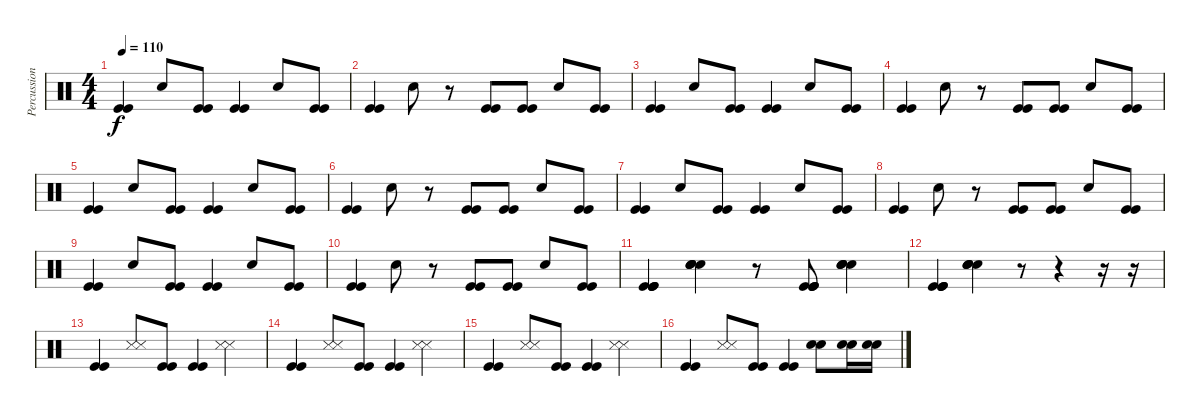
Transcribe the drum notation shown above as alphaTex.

\track ("Percussion" "Percussion") {instrument percussion}
\staff {score}
\articulation defaults
\ts (4 4)
\tempo 110
\clef neutral
\ks c
("Kick (hit)" "Kick (hit)").4{dy f} "Electric Snare (hit)".8 ("Kick (hit)" "Kick (hit)").8 ("Kick (hit)" "Kick (hit)").4 "Electric Snare (hit)".8 ("Kick (hit)" "Kick (hit)").8 |
("Kick (hit)" "Kick (hit)").4 "Electric Snare (hit)".8 r.8 ("Kick (hit)" "Kick (hit)").8 ("Kick (hit)" "Kick (hit)").8 "Electric Snare (hit)".8 ("Kick (hit)" "Kick (hit)").8 |
("Kick (hit)" "Kick (hit)").4 "Electric Snare (hit)".8 ("Kick (hit)" "Kick (hit)").8 ("Kick (hit)" "Kick (hit)").4 "Electric Snare (hit)".8 ("Kick (hit)" "Kick (hit)").8 |
("Kick (hit)" "Kick (hit)").4 "Electric Snare (hit)".8 r.8 ("Kick (hit)" "Kick (hit)").8 ("Kick (hit)" "Kick (hit)").8 "Electric Snare (hit)".8 ("Kick (hit)" "Kick (hit)").8 |
("Kick (hit)" "Kick (hit)").4 "Electric Snare (hit)".8 ("Kick (hit)" "Kick (hit)").8 ("Kick (hit)" "Kick (hit)").4 "Electric Snare (hit)".8 ("Kick (hit)" "Kick (hit)").8 |
("Kick (hit)" "Kick (hit)").4 "Electric Snare (hit)".8 r.8 ("Kick (hit)" "Kick (hit)").8 ("Kick (hit)" "Kick (hit)").8 "Electric Snare (hit)".8 ("Kick (hit)" "Kick (hit)").8 |
("Kick (hit)" "Kick (hit)").4 "Electric Snare (hit)".8 ("Kick (hit)" "Kick (hit)").8 ("Kick (hit)" "Kick (hit)").4 "Electric Snare (hit)".8 ("Kick (hit)" "Kick (hit)").8 |
("Kick (hit)" "Kick (hit)").4 "Electric Snare (hit)".8 r.8 ("Kick (hit)" "Kick (hit)").8 ("Kick (hit)" "Kick (hit)").8 "Electric Snare (hit)".8 ("Kick (hit)" "Kick (hit)").8 |
("Kick (hit)" "Kick (hit)").4 "Electric Snare (hit)".8 ("Kick (hit)" "Kick (hit)").8 ("Kick (hit)" "Kick (hit)").4 "Electric Snare (hit)".8 ("Kick (hit)" "Kick (hit)").8 |
("Kick (hit)" "Kick (hit)").4 "Electric Snare (hit)".8 r.8 ("Kick (hit)" "Kick (hit)").8 ("Kick (hit)" "Kick (hit)").8 "Electric Snare (hit)".8 ("Kick (hit)" "Kick (hit)").8 |
("Kick (hit)" "Kick (hit)" "Kick (hit)" "Kick (hit)").4 ("Electric Snare (hit)" "Electric Snare (hit)" "Electric Snare (hit)" "Electric Snare (hit)").4 r.8 ("Kick (hit)" "Kick (hit)" "Kick (hit)" "Kick (hit)").8 ("Electric Snare (hit)" "Electric Snare (hit)" "Electric Snare (hit)" "Electric Snare (hit)").4 |
("Kick (hit)" "Kick (hit)" "Kick (hit)" "Kick (hit)").4 ("Electric Snare (hit)" "Electric Snare (hit)" "Electric Snare (hit)" "Electric Snare (hit)").4 r.8 r.4 r.16 r.16 |
("Kick (hit)" "Kick (hit)").4 ("Snare (side stick) 3" "Snare (side stick) 3").8 ("Kick (hit)" "Kick (hit)").8 ("Kick (hit)" "Kick (hit)").4 ("Snare (side stick) 3" "Snare (side stick) 3").4 |
("Kick (hit)" "Kick (hit)").4 ("Snare (side stick) 3" "Snare (side stick) 3").8 ("Kick (hit)" "Kick (hit)").8 ("Kick (hit)" "Kick (hit)").4 ("Snare (side stick) 3" "Snare (side stick) 3").4 |
("Kick (hit)" "Kick (hit)").4 ("Snare (side stick) 3" "Snare (side stick) 3").8 ("Kick (hit)" "Kick (hit)").8 ("Kick (hit)" "Kick (hit)").4 ("Snare (side stick) 3" "Snare (side stick) 3").4 |
("Kick (hit)" "Kick (hit)").4 ("Snare (side stick) 3" "Snare (side stick) 3").8 ("Kick (hit)" "Kick (hit)").8 ("Kick (hit)" "Kick (hit)").4 ("Electric Snare (hit)" "Electric Snare (hit)").8 ("Electric Snare (hit)" "Electric Snare (hit)").16 ("Electric Snare (hit)" "Electric Snare (hit)").16
